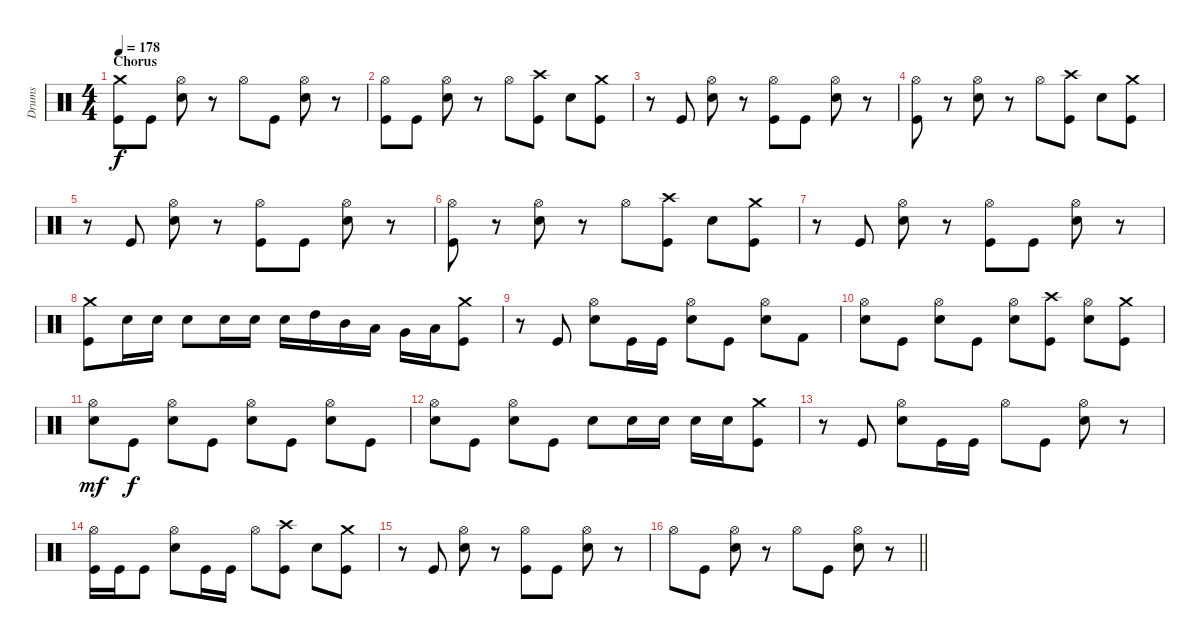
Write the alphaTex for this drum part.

\track ("Drums" "Drums") {instrument percussion}
\staff {score}
\articulation defaults
\ts (4 4)
\section ("" "Chorus")
\tempo 178
\clef neutral
\ks c
("Crash medium (hit)" "Kick (hit)").8{dy f} "Kick (hit)".8 ("Hi-Hat (open)" "Electric Snare (hit)").8 r.8 "Hi-Hat (open)".8 "Kick (hit)".8 ("Hi-Hat (open)" "Electric Snare (hit)").8 r.8 |
("Hi-Hat (open)" "Kick (hit)").8 "Kick (hit)".8 ("Hi-Hat (open)" "Electric Snare (hit)").8 r.8 "Hi-Hat (open)".8 ("Crash high (hit)" "Kick (hit)").8 "Electric Snare (hit)".8 ("Crash medium (hit)" "Kick (hit)").8 |
r.8 "Kick (hit)".8 ("Hi-Hat (open)" "Electric Snare (hit)").8 r.8 ("Hi-Hat (open)" "Kick (hit)").8 "Kick (hit)".8 ("Hi-Hat (open)" "Electric Snare (hit)").8 r.8 |
("Hi-Hat (open)" "Kick (hit)").8 r.8 ("Hi-Hat (open)" "Electric Snare (hit)").8 r.8 "Hi-Hat (open)".8 ("Crash high (hit)" "Kick (hit)").8 "Electric Snare (hit)".8 ("Crash medium (hit)" "Kick (hit)").8 |
r.8 "Kick (hit)".8 ("Hi-Hat (open)" "Electric Snare (hit)").8 r.8 ("Hi-Hat (open)" "Kick (hit)").8 "Kick (hit)".8 ("Hi-Hat (open)" "Electric Snare (hit)").8 r.8 |
("Hi-Hat (open)" "Kick (hit)").8 r.8 ("Hi-Hat (open)" "Electric Snare (hit)").8 r.8 "Hi-Hat (open)".8 ("Crash high (hit)" "Kick (hit)").8 "Electric Snare (hit)".8 ("Crash medium (hit)" "Kick (hit)").8 |
r.8 "Kick (hit)".8 ("Hi-Hat (open)" "Electric Snare (hit)").8 r.8 ("Hi-Hat (open)" "Kick (hit)").8 "Kick (hit)".8 ("Hi-Hat (open)" "Electric Snare (hit)").8 r.8 |
("Crash medium (hit)" "Kick (hit)").8 "Electric Snare (hit)".16 "Electric Snare (hit)".16 "Electric Snare (hit)".8 "Electric Snare (hit)".16 "Electric Snare (hit)".16 "Electric Snare (hit)".16 "High Tom (hit)".16 "Mid Tom (hit)".16 "Low Tom (hit)".16 "Very Low Tom (hit)".16 "Low Floor Tom (hit)".16 ("Crash medium (hit)" "Kick (hit)").8 |
r.8 "Kick (hit)".8 ("Hi-Hat (open)" "Electric Snare (hit)").8 "Kick (hit)".16 "Kick (hit)".16 ("Hi-Hat (open)" "Electric Snare (hit)").8 "Kick (hit)".8 ("Hi-Hat (open)" "Electric Snare (hit)").8 "Kick (hit) 2".8 |
("Hi-Hat (open)" "Electric Snare (hit)").8 "Kick (hit)".8 ("Hi-Hat (open)" "Electric Snare (hit)").8 "Kick (hit)".8 ("Hi-Hat (open)" "Electric Snare (hit)").8 ("Crash high (hit)" "Kick (hit)").8 ("Hi-Hat (open)" "Electric Snare (hit)").8 ("Crash medium (hit)" "Kick (hit)").8 |
("Hi-Hat (open)" "Electric Snare (hit)").8{dy mf} "Kick (hit)".8{dy f} ("Hi-Hat (open)" "Electric Snare (hit)").8 "Kick (hit)".8 ("Hi-Hat (open)" "Electric Snare (hit)").8 "Kick (hit)".8 ("Hi-Hat (open)" "Electric Snare (hit)").8 "Kick (hit)".8 |
("Hi-Hat (open)" "Electric Snare (hit)").8 "Kick (hit)".8 ("Hi-Hat (open)" "Electric Snare (hit)").8 "Kick (hit)".8 "Electric Snare (hit)".8 "Electric Snare (hit)".16 "Electric Snare (hit)".16 "Electric Snare (hit)".16 "Electric Snare (hit)".16 ("Crash medium (hit)" "Kick (hit)").8 |
r.8 "Kick (hit)".8 ("Hi-Hat (open)" "Electric Snare (hit)").8 "Kick (hit)".16 "Kick (hit)".16 "Hi-Hat (open)".8 "Kick (hit)".8 ("Hi-Hat (open)" "Electric Snare (hit)").8 r.8 |
("Hi-Hat (open)" "Kick (hit)").16 "Kick (hit)".16 "Kick (hit)".8 ("Hi-Hat (open)" "Electric Snare (hit)").8 "Kick (hit)".16 "Kick (hit)".16 "Hi-Hat (open)".8 ("Crash high (hit)" "Kick (hit)").8 "Electric Snare (hit)".8 ("Crash medium (hit)" "Kick (hit)").8 |
r.8 "Kick (hit)".8 ("Hi-Hat (open)" "Electric Snare (hit)").8 r.8 ("Hi-Hat (open)" "Kick (hit)").8 "Kick (hit)".8 ("Hi-Hat (open)" "Electric Snare (hit)").8 r.8 |
\barLineRight lightlight "Hi-Hat (open)".8 "Kick (hit)".8
("Hi-Hat (open)" "Electric Snare (hit)").8 r.8 "Hi-Hat (open)".8 "Kick (hit)".8 ("Hi-Hat (open)" "Electric Snare (hit)").8 r.8
